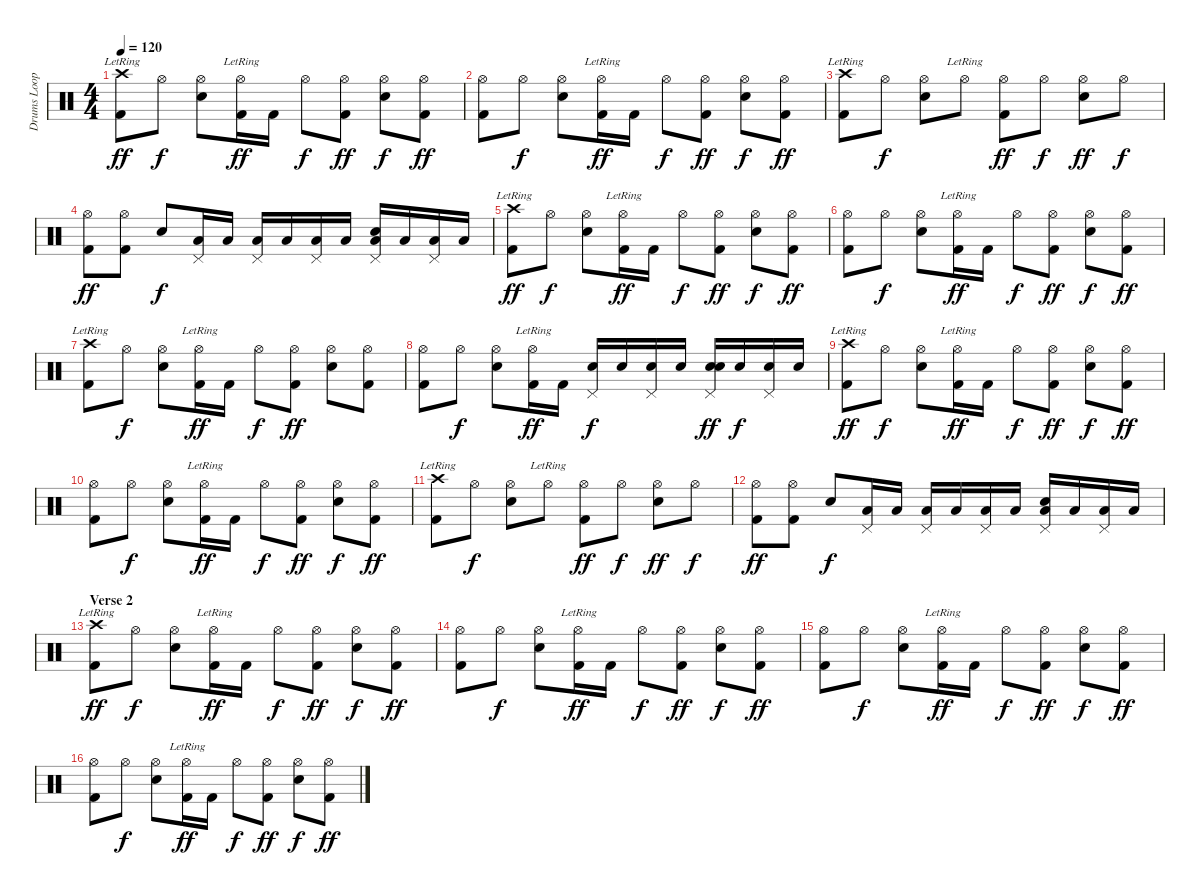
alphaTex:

\track ("Drums Looping" "Drums Loop") {instrument percussion}
\staff {score}
\articulation defaults
\ts (4 4)
\tempo 120
\clef neutral
\ks c
("Crash high (hit)"{lr} "Kick (hit) 2").8{dy ff} "Hi-Hat (open)".8{dy f} ("Hi-Hat (open)" "Snare (hit) 2").8 ("Hi-Hat (open)"{lr} "Kick (hit) 2").16{dy ff} "Kick (hit) 2".16 "Hi-Hat (open)".8{dy f} ("Hi-Hat (open)" "Kick (hit) 2").8{dy ff} ("Hi-Hat (open)" "Snare (hit) 2").8{dy f} ("Hi-Hat (open)" "Kick (hit) 2").8{dy ff} |
("Hi-Hat (open)" "Kick (hit) 2").8 "Hi-Hat (open)".8{dy f} ("Hi-Hat (open)" "Snare (hit) 2").8 ("Hi-Hat (open)"{lr} "Kick (hit) 2").16{dy ff} "Kick (hit) 2".16 "Hi-Hat (open)".8{dy f} ("Hi-Hat (open)" "Kick (hit) 2").8{dy ff} ("Hi-Hat (open)" "Snare (hit) 2").8{dy f} ("Hi-Hat (open)" "Kick (hit) 2").8{dy ff} |
("Crash high (hit)"{lr} "Kick (hit) 2").8 "Hi-Hat (open)".8{dy f} ("Hi-Hat (open)" "Snare (hit) 2").8 "Hi-Hat (open)"{lr}.8 ("Hi-Hat (open)" "Kick (hit) 2").8{dy ff} "Hi-Hat (open)".8{dy f} ("Hi-Hat (open)" "Electric Snare (hit)").8{dy ff} "Hi-Hat (open)".8{dy f} |
("Hi-Hat (open)" "Kick (hit) 2").8{dy ff} ("Hi-Hat (open)" "Kick (hit) 2").8 "Snare (hit) 2".8{dy f} ("Pedal Hi-Hat (hit)" "Low Tom (hit)").16 "Low Tom (hit)".16 ("Pedal Hi-Hat (hit)" "Low Tom (hit)").16 "Low Tom (hit)".16 ("Pedal Hi-Hat (hit)" "Low Tom (hit)").16 "Low Tom (hit)".16 ("Pedal Hi-Hat (hit)" "Electric Snare (hit)" "Low Tom (hit)").16 "Low Tom (hit)".16 ("Pedal Hi-Hat (hit)" "Low Tom (hit)").16 "Low Tom (hit)".16 |
("Crash high (hit)"{lr} "Kick (hit) 2").8{dy ff} "Hi-Hat (open)".8{dy f} ("Hi-Hat (open)" "Snare (hit) 2").8 ("Hi-Hat (open)"{lr} "Kick (hit) 2").16{dy ff} "Kick (hit) 2".16 "Hi-Hat (open)".8{dy f} ("Hi-Hat (open)" "Kick (hit) 2").8{dy ff} ("Hi-Hat (open)" "Snare (hit) 2").8{dy f} ("Hi-Hat (open)" "Kick (hit) 2").8{dy ff} |
("Hi-Hat (open)" "Kick (hit) 2").8 "Hi-Hat (open)".8{dy f} ("Hi-Hat (open)" "Snare (hit) 2").8 ("Hi-Hat (open)"{lr} "Kick (hit) 2").16{dy ff} "Kick (hit) 2".16 "Hi-Hat (open)".8{dy f} ("Hi-Hat (open)" "Kick (hit) 2").8{dy ff} ("Hi-Hat (open)" "Snare (hit) 2").8{dy f} ("Hi-Hat (open)" "Kick (hit) 2").8{dy ff} |
("Crash high (hit)"{lr} "Kick (hit) 2").8 "Hi-Hat (open)".8{dy f} ("Hi-Hat (open)" "Snare (hit) 2").8 ("Hi-Hat (open)"{lr} "Kick (hit) 2").16{dy ff} "Kick (hit) 2".16 "Hi-Hat (open)".8{dy f} ("Hi-Hat (open)" "Kick (hit) 2").8{dy ff} ("Hi-Hat (open)" "Electric Snare (hit)").8 ("Hi-Hat (open)" "Kick (hit) 2").8 |
("Hi-Hat (open)" "Kick (hit) 2").8 "Hi-Hat (open)".8{dy f} ("Hi-Hat (open)" "Snare (hit) 2").8 ("Hi-Hat (open)"{lr} "Kick (hit) 2").16{dy ff} "Kick (hit) 2".16 ("Pedal Hi-Hat (hit)" "Snare (hit) 2").16{dy f} "Snare (hit) 2".16 ("Pedal Hi-Hat (hit)" "Snare (hit) 2").16 "Snare (hit) 2".16 ("Pedal Hi-Hat (hit)" "Snare (hit) 2" "Electric Snare (hit)").16{dy ff} "Snare (hit) 2".16{dy f} ("Pedal Hi-Hat (hit)" "Snare (hit) 2").16 "Snare (hit) 2".16 |
("Crash high (hit)"{lr} "Kick (hit) 2").8{dy ff} "Hi-Hat (open)".8{dy f} ("Hi-Hat (open)" "Snare (hit) 2").8 ("Hi-Hat (open)"{lr} "Kick (hit) 2").16{dy ff} "Kick (hit) 2".16 "Hi-Hat (open)".8{dy f} ("Hi-Hat (open)" "Kick (hit) 2").8{dy ff} ("Hi-Hat (open)" "Snare (hit) 2").8{dy f} ("Hi-Hat (open)" "Kick (hit) 2").8{dy ff} |
("Hi-Hat (open)" "Kick (hit) 2").8 "Hi-Hat (open)".8{dy f} ("Hi-Hat (open)" "Snare (hit) 2").8 ("Hi-Hat (open)"{lr} "Kick (hit) 2").16{dy ff} "Kick (hit) 2".16 "Hi-Hat (open)".8{dy f} ("Hi-Hat (open)" "Kick (hit) 2").8{dy ff} ("Hi-Hat (open)" "Snare (hit) 2").8{dy f} ("Hi-Hat (open)" "Kick (hit) 2").8{dy ff} |
("Crash high (hit)"{lr} "Kick (hit) 2").8 "Hi-Hat (open)".8{dy f} ("Hi-Hat (open)" "Snare (hit) 2").8 "Hi-Hat (open)"{lr}.8 ("Hi-Hat (open)" "Kick (hit) 2").8{dy ff} "Hi-Hat (open)".8{dy f} ("Hi-Hat (open)" "Electric Snare (hit)").8{dy ff} "Hi-Hat (open)".8{dy f} |
("Hi-Hat (open)" "Kick (hit) 2").8{dy ff} ("Hi-Hat (open)" "Kick (hit) 2").8 "Snare (hit) 2".8{dy f} ("Pedal Hi-Hat (hit)" "Low Tom (hit)").16 "Low Tom (hit)".16 ("Pedal Hi-Hat (hit)" "Low Tom (hit)").16 "Low Tom (hit)".16 ("Pedal Hi-Hat (hit)" "Low Tom (hit)").16 "Low Tom (hit)".16 ("Pedal Hi-Hat (hit)" "Electric Snare (hit)" "Low Tom (hit)").16 "Low Tom (hit)".16 ("Pedal Hi-Hat (hit)" "Low Tom (hit)").16 "Low Tom (hit)".16 |
\section ("" "Verse 2")
("Crash high (hit)"{lr} "Kick (hit) 2").8{dy ff} "Hi-Hat (open)".8{dy f} ("Hi-Hat (open)" "Snare (hit) 2").8 ("Hi-Hat (open)"{lr} "Kick (hit) 2").16{dy ff} "Kick (hit) 2".16 "Hi-Hat (open)".8{dy f} ("Hi-Hat (open)" "Kick (hit) 2").8{dy ff} ("Hi-Hat (open)" "Snare (hit) 2").8{dy f} ("Hi-Hat (open)" "Kick (hit) 2").8{dy ff} |
("Hi-Hat (open)" "Kick (hit) 2").8 "Hi-Hat (open)".8{dy f} ("Hi-Hat (open)" "Snare (hit) 2").8 ("Hi-Hat (open)"{lr} "Kick (hit) 2").16{dy ff} "Kick (hit) 2".16 "Hi-Hat (open)".8{dy f} ("Hi-Hat (open)" "Kick (hit) 2").8{dy ff} ("Hi-Hat (open)" "Snare (hit) 2").8{dy f} ("Hi-Hat (open)" "Kick (hit) 2").8{dy ff} |
("Hi-Hat (open)" "Kick (hit) 2").8 "Hi-Hat (open)".8{dy f} ("Hi-Hat (open)" "Snare (hit) 2").8 ("Hi-Hat (open)"{lr} "Kick (hit) 2").16{dy ff} "Kick (hit) 2".16 "Hi-Hat (open)".8{dy f} ("Hi-Hat (open)" "Kick (hit) 2").8{dy ff} ("Hi-Hat (open)" "Snare (hit) 2").8{dy f} ("Hi-Hat (open)" "Kick (hit) 2").8{dy ff} |
("Hi-Hat (open)" "Kick (hit) 2").8 "Hi-Hat (open)".8{dy f} ("Hi-Hat (open)" "Snare (hit) 2").8 ("Hi-Hat (open)"{lr} "Kick (hit) 2").16{dy ff} "Kick (hit) 2".16 "Hi-Hat (open)".8{dy f} ("Hi-Hat (open)" "Kick (hit) 2").8{dy ff} ("Hi-Hat (open)" "Snare (hit) 2").8{dy f} ("Hi-Hat (open)" "Kick (hit) 2").8{dy ff}
